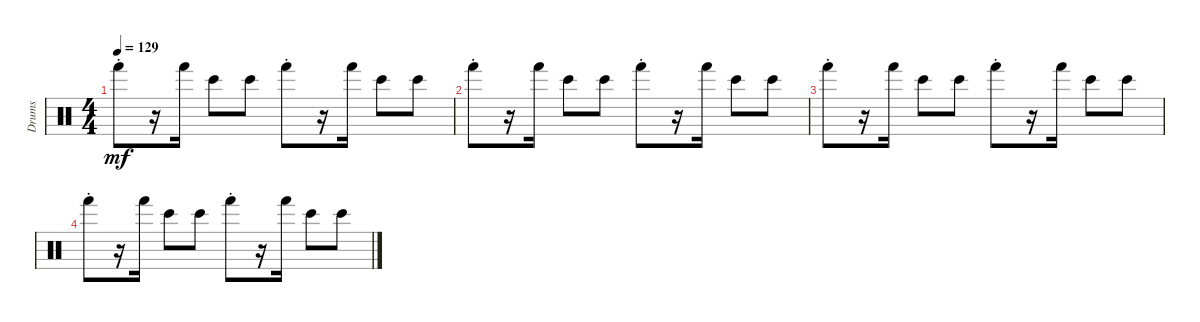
\track ("Drums" "Drums") {instrument percussion}
\staff {score}
\articulation defaults
\ts (4 4)
\tempo 129
\clef neutral
\ks c "Hand (hit)"{st}.8{dy mf}
r.16 "Hand (hit)".16 "Bongo High (hit)".8 "Bongo High (hit)".8 "Hand (hit)"{st}.8 r.16 "Hand (hit)".16 "Bongo High (hit)".8 "Bongo High (hit)".8 |
"Hand (hit)"{st}.8 r.16 "Hand (hit)".16 "Bongo High (hit)".8 "Bongo High (hit)".8 "Hand (hit)"{st}.8 r.16 "Hand (hit)".16 "Bongo High (hit)".8 "Bongo High (hit)".8 |
"Hand (hit)"{st}.8 r.16 "Hand (hit)".16 "Bongo High (hit)".8 "Bongo High (hit)".8 "Hand (hit)"{st}.8 r.16 "Hand (hit)".16 "Bongo High (hit)".8 "Bongo High (hit)".8 |
"Hand (hit)"{st}.8 r.16 "Hand (hit)".16 "Bongo High (hit)".8 "Bongo High (hit)".8 "Hand (hit)"{st}.8 r.16 "Hand (hit)".16 "Bongo High (hit)".8 "Bongo High (hit)".8
